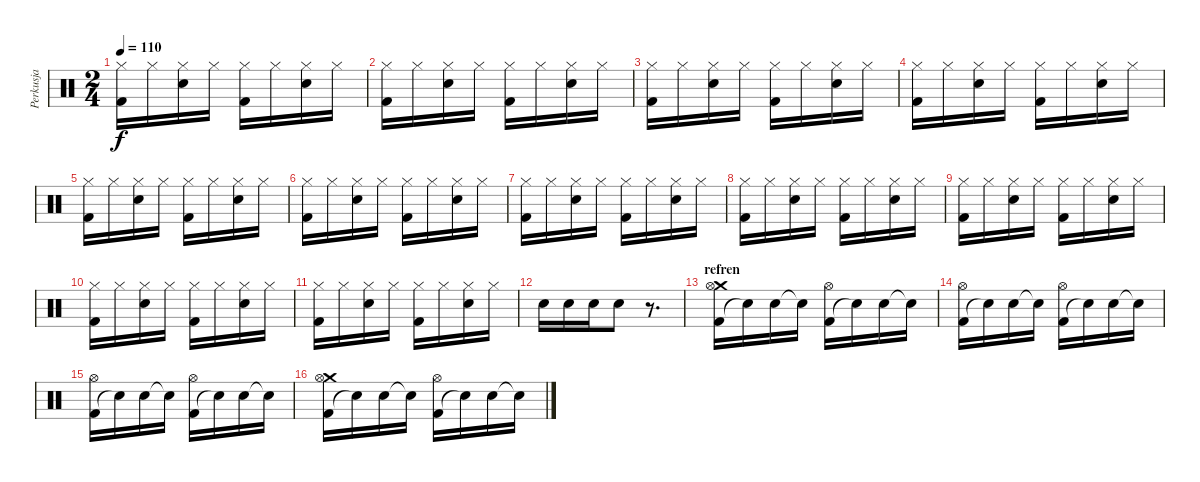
\track ("Perkusja" "Perkusja") {instrument percussion}
\staff {score}
\articulation defaults
\ts (2 4)
\tempo 110
\clef neutral
\ks c
("Kick (hit) 2" "Hi-Hat (closed)").16{dy f} "Hi-Hat (closed)".16 ("Electric Snare (hit)" "Hi-Hat (closed)").16 "Hi-Hat (closed)".16 ("Kick (hit) 2" "Hi-Hat (closed)").16 "Hi-Hat (closed)".16 ("Electric Snare (hit)" "Hi-Hat (closed)").16 "Hi-Hat (closed)".16 |
("Kick (hit) 2" "Hi-Hat (closed)").16 "Hi-Hat (closed)".16 ("Electric Snare (hit)" "Hi-Hat (closed)").16 "Hi-Hat (closed)".16 ("Kick (hit) 2" "Hi-Hat (closed)").16 "Hi-Hat (closed)".16 ("Electric Snare (hit)" "Hi-Hat (closed)").16 "Hi-Hat (closed)".16 |
("Kick (hit) 2" "Hi-Hat (closed)").16 "Hi-Hat (closed)".16 ("Electric Snare (hit)" "Hi-Hat (closed)").16 "Hi-Hat (closed)".16 ("Kick (hit) 2" "Hi-Hat (closed)").16 "Hi-Hat (closed)".16 ("Electric Snare (hit)" "Hi-Hat (closed)").16 "Hi-Hat (closed)".16 |
("Kick (hit) 2" "Hi-Hat (closed)").16 "Hi-Hat (closed)".16 ("Electric Snare (hit)" "Hi-Hat (closed)").16 "Hi-Hat (closed)".16 ("Kick (hit) 2" "Hi-Hat (closed)").16 "Hi-Hat (closed)".16 ("Electric Snare (hit)" "Hi-Hat (closed)").16 "Hi-Hat (closed)".16 |
("Kick (hit) 2" "Hi-Hat (closed)").16 "Hi-Hat (closed)".16 ("Electric Snare (hit)" "Hi-Hat (closed)").16 "Hi-Hat (closed)".16 ("Kick (hit) 2" "Hi-Hat (closed)").16 "Hi-Hat (closed)".16 ("Electric Snare (hit)" "Hi-Hat (closed)").16 "Hi-Hat (closed)".16 |
("Kick (hit) 2" "Hi-Hat (closed)").16 "Hi-Hat (closed)".16 ("Electric Snare (hit)" "Hi-Hat (closed)").16 "Hi-Hat (closed)".16 ("Kick (hit) 2" "Hi-Hat (closed)").16 "Hi-Hat (closed)".16 ("Electric Snare (hit)" "Hi-Hat (closed)").16 "Hi-Hat (closed)".16 |
("Kick (hit) 2" "Hi-Hat (closed)").16 "Hi-Hat (closed)".16 ("Electric Snare (hit)" "Hi-Hat (closed)").16 "Hi-Hat (closed)".16 ("Kick (hit) 2" "Hi-Hat (closed)").16 "Hi-Hat (closed)".16 ("Electric Snare (hit)" "Hi-Hat (closed)").16 "Hi-Hat (closed)".16 |
("Kick (hit) 2" "Hi-Hat (closed)").16 "Hi-Hat (closed)".16 ("Electric Snare (hit)" "Hi-Hat (closed)").16 "Hi-Hat (closed)".16 ("Kick (hit) 2" "Hi-Hat (closed)").16 "Hi-Hat (closed)".16 ("Electric Snare (hit)" "Hi-Hat (closed)").16 "Hi-Hat (closed)".16 |
("Kick (hit) 2" "Hi-Hat (closed)").16 "Hi-Hat (closed)".16 ("Electric Snare (hit)" "Hi-Hat (closed)").16 "Hi-Hat (closed)".16 ("Kick (hit) 2" "Hi-Hat (closed)").16 "Hi-Hat (closed)".16 ("Electric Snare (hit)" "Hi-Hat (closed)").16 "Hi-Hat (closed)".16 |
("Kick (hit) 2" "Hi-Hat (closed)").16 "Hi-Hat (closed)".16 ("Electric Snare (hit)" "Hi-Hat (closed)").16 "Hi-Hat (closed)".16 ("Kick (hit) 2" "Hi-Hat (closed)").16 "Hi-Hat (closed)".16 ("Electric Snare (hit)" "Hi-Hat (closed)").16 "Hi-Hat (closed)".16 |
("Kick (hit) 2" "Hi-Hat (closed)").16 "Hi-Hat (closed)".16 ("Electric Snare (hit)" "Hi-Hat (closed)").16 "Hi-Hat (closed)".16 ("Kick (hit) 2" "Hi-Hat (closed)").16 "Hi-Hat (closed)".16 ("Electric Snare (hit)" "Hi-Hat (closed)").16 "Hi-Hat (closed)".16 |
"Electric Snare (hit)".16 "Electric Snare (hit)".16 "Electric Snare (hit)".16 "Electric Snare (hit)".8 r.8{d} |
\section ("" "refren")
("Kick (hit) 2" "Crash medium (hit)" "Hi-Hat (open)").16 "Snare (hit)"{t}.16 "Electric Snare (hit)".16 "Snare (hit)"{t}.16 ("Kick (hit) 2" "Hi-Hat (open)").16 "Snare (hit)"{t}.16 "Electric Snare (hit)".16 "Snare (hit)"{t}.16 |
("Kick (hit) 2" "Hi-Hat (open)").16 "Snare (hit)"{t}.16 "Electric Snare (hit)".16 "Snare (hit)"{t}.16 ("Kick (hit) 2" "Hi-Hat (open)").16 "Snare (hit)"{t}.16 "Electric Snare (hit)".16 "Snare (hit)"{t}.16 |
("Kick (hit) 2" "Hi-Hat (open)").16 "Snare (hit)"{t}.16 "Electric Snare (hit)".16 "Snare (hit)"{t}.16 ("Kick (hit) 2" "Hi-Hat (open)").16 "Snare (hit)"{t}.16 "Electric Snare (hit)".16 "Snare (hit)"{t}.16 |
("Kick (hit) 2" "Crash medium (hit)" "Hi-Hat (open)").16 "Snare (hit)"{t}.16 "Electric Snare (hit)".16 "Snare (hit)"{t}.16 ("Kick (hit) 2" "Hi-Hat (open)").16 "Snare (hit)"{t}.16 "Electric Snare (hit)".16 "Snare (hit)"{t}.16
